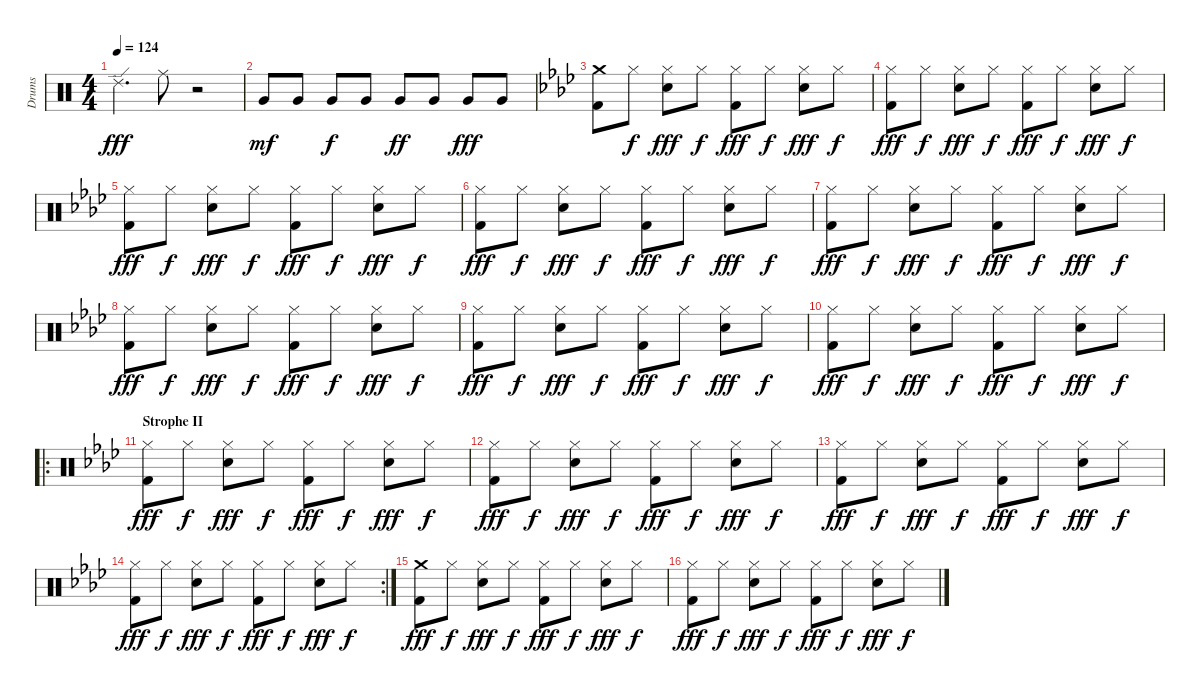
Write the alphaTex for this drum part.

\track ("Drums" "Drums") {instrument percussion}
\staff {score}
\articulation defaults
\ts (4 4)
\tempo 124
\clef neutral
\ks c "Ride (edge) 2".4{d dy fff} "Ride (middle)".8
r.2 |
"Very Low Tom (hit)".8{dy mf} "Very Low Tom (hit)".8 "Very Low Tom (hit)".8{dy f} "Very Low Tom (hit)".8 "Very Low Tom (hit)".8{dy ff} "Very Low Tom (hit)".8 "Very Low Tom (hit)".8{dy fff} "Very Low Tom (hit)".8 |
\ks ab
("Crash medium (hit)" "Kick (hit) 2").8 "Hi-Hat (closed)".8{dy f} ("Hi-Hat (closed)" "Snare (hit) 2").8{dy fff} "Hi-Hat (closed)".8{dy f} ("Hi-Hat (closed)" "Kick (hit) 2").8{dy fff} "Hi-Hat (closed)".8{dy f} ("Hi-Hat (closed)" "Snare (hit) 2").8{dy fff} "Hi-Hat (closed)".8{dy f} |
("Hi-Hat (closed)" "Kick (hit) 2").8{dy fff} "Hi-Hat (closed)".8{dy f} ("Hi-Hat (closed)" "Snare (hit) 2").8{dy fff} "Hi-Hat (closed)".8{dy f} ("Hi-Hat (closed)" "Kick (hit) 2").8{dy fff} "Hi-Hat (closed)".8{dy f} ("Hi-Hat (closed)" "Snare (hit) 2").8{dy fff} "Hi-Hat (closed)".8{dy f} |
("Hi-Hat (closed)" "Kick (hit) 2").8{dy fff} "Hi-Hat (closed)".8{dy f} ("Hi-Hat (closed)" "Snare (hit) 2").8{dy fff} "Hi-Hat (closed)".8{dy f} ("Hi-Hat (closed)" "Kick (hit) 2").8{dy fff} "Hi-Hat (closed)".8{dy f} ("Hi-Hat (closed)" "Snare (hit) 2").8{dy fff} "Hi-Hat (closed)".8{dy f} |
("Hi-Hat (closed)" "Kick (hit) 2").8{dy fff} "Hi-Hat (closed)".8{dy f} ("Hi-Hat (closed)" "Snare (hit) 2").8{dy fff} "Hi-Hat (closed)".8{dy f} ("Hi-Hat (closed)" "Kick (hit) 2").8{dy fff} "Hi-Hat (closed)".8{dy f} ("Hi-Hat (closed)" "Snare (hit) 2").8{dy fff} "Hi-Hat (closed)".8{dy f} |
("Hi-Hat (closed)" "Kick (hit) 2").8{dy fff} "Hi-Hat (closed)".8{dy f} ("Hi-Hat (closed)" "Snare (hit) 2").8{dy fff} "Hi-Hat (closed)".8{dy f} ("Hi-Hat (closed)" "Kick (hit) 2").8{dy fff} "Hi-Hat (closed)".8{dy f} ("Hi-Hat (closed)" "Snare (hit) 2").8{dy fff} "Hi-Hat (closed)".8{dy f} |
("Hi-Hat (closed)" "Kick (hit) 2").8{dy fff} "Hi-Hat (closed)".8{dy f} ("Hi-Hat (closed)" "Snare (hit) 2").8{dy fff} "Hi-Hat (closed)".8{dy f} ("Hi-Hat (closed)" "Kick (hit) 2").8{dy fff} "Hi-Hat (closed)".8{dy f} ("Hi-Hat (closed)" "Snare (hit) 2").8{dy fff} "Hi-Hat (closed)".8{dy f} |
("Hi-Hat (closed)" "Kick (hit) 2").8{dy fff} "Hi-Hat (closed)".8{dy f} ("Hi-Hat (closed)" "Snare (hit) 2").8{dy fff} "Hi-Hat (closed)".8{dy f} ("Hi-Hat (closed)" "Kick (hit) 2").8{dy fff} "Hi-Hat (closed)".8{dy f} ("Hi-Hat (closed)" "Snare (hit) 2").8{dy fff} "Hi-Hat (closed)".8{dy f} |
("Hi-Hat (closed)" "Kick (hit) 2").8{dy fff} "Hi-Hat (closed)".8{dy f} ("Hi-Hat (closed)" "Snare (hit) 2").8{dy fff} "Hi-Hat (closed)".8{dy f} ("Hi-Hat (closed)" "Kick (hit) 2").8{dy fff} "Hi-Hat (closed)".8{dy f} ("Hi-Hat (closed)" "Snare (hit) 2").8{dy fff} "Hi-Hat (closed)".8{dy f} |
\ro
\section ("" "Strophe II")
("Hi-Hat (closed)" "Kick (hit) 2").8{dy fff} "Hi-Hat (closed)".8{dy f} ("Hi-Hat (closed)" "Snare (hit) 2").8{dy fff} "Hi-Hat (closed)".8{dy f} ("Hi-Hat (closed)" "Kick (hit) 2").8{dy fff} "Hi-Hat (closed)".8{dy f} ("Hi-Hat (closed)" "Snare (hit) 2").8{dy fff} "Hi-Hat (closed)".8{dy f} |
("Hi-Hat (closed)" "Kick (hit) 2").8{dy fff} "Hi-Hat (closed)".8{dy f} ("Hi-Hat (closed)" "Snare (hit) 2").8{dy fff} "Hi-Hat (closed)".8{dy f} ("Hi-Hat (closed)" "Kick (hit) 2").8{dy fff} "Hi-Hat (closed)".8{dy f} ("Hi-Hat (closed)" "Snare (hit) 2").8{dy fff} "Hi-Hat (closed)".8{dy f} |
("Hi-Hat (closed)" "Kick (hit) 2").8{dy fff} "Hi-Hat (closed)".8{dy f} ("Hi-Hat (closed)" "Snare (hit) 2").8{dy fff} "Hi-Hat (closed)".8{dy f} ("Hi-Hat (closed)" "Kick (hit) 2").8{dy fff} "Hi-Hat (closed)".8{dy f} ("Hi-Hat (closed)" "Snare (hit) 2").8{dy fff} "Hi-Hat (closed)".8{dy f} |
\rc 2
("Hi-Hat (closed)" "Kick (hit) 2").8{dy fff} "Hi-Hat (closed)".8{dy f} ("Hi-Hat (closed)" "Snare (hit) 2").8{dy fff} "Hi-Hat (closed)".8{dy f} ("Hi-Hat (closed)" "Kick (hit) 2").8{dy fff} "Hi-Hat (closed)".8{dy f} ("Hi-Hat (closed)" "Snare (hit) 2").8{dy fff} "Hi-Hat (closed)".8{dy f} |
("Crash medium (hit)" "Kick (hit) 2").8{dy fff} "Hi-Hat (closed)".8{dy f} ("Hi-Hat (closed)" "Snare (hit) 2").8{dy fff} "Hi-Hat (closed)".8{dy f} ("Hi-Hat (closed)" "Kick (hit) 2").8{dy fff} "Hi-Hat (closed)".8{dy f} ("Hi-Hat (closed)" "Snare (hit) 2").8{dy fff} "Hi-Hat (closed)".8{dy f} |
("Hi-Hat (closed)" "Kick (hit) 2").8{dy fff} "Hi-Hat (closed)".8{dy f} ("Hi-Hat (closed)" "Snare (hit) 2").8{dy fff} "Hi-Hat (closed)".8{dy f} ("Hi-Hat (closed)" "Kick (hit) 2").8{dy fff} "Hi-Hat (closed)".8{dy f} ("Hi-Hat (closed)" "Snare (hit) 2").8{dy fff} "Hi-Hat (closed)".8{dy f}
